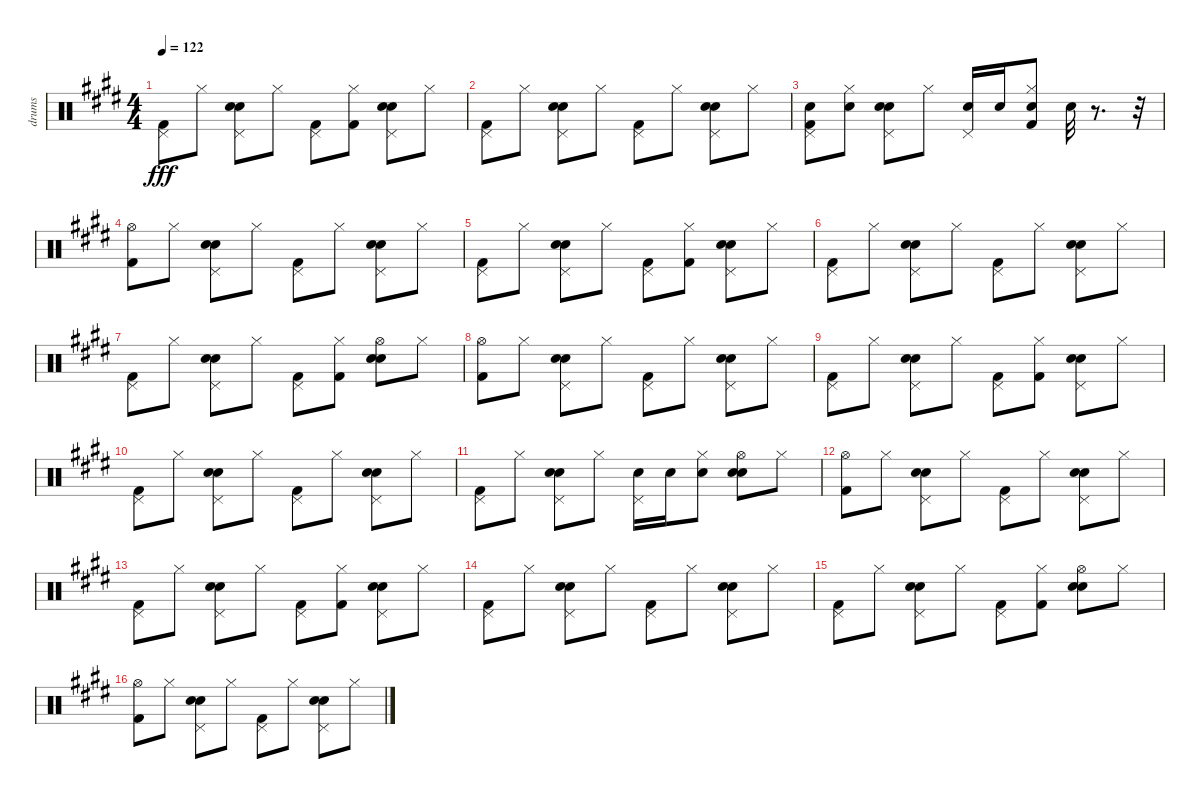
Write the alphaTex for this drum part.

\track ("drums" "drums") {instrument percussion}
\staff {score}
\articulation defaults
\ts (4 4)
\tempo 122
\clef neutral
\ks e
("Pedal Hi-Hat (hit)" "Kick (hit) 2").8{dy fff} "Hi-Hat (closed)".8 ("Hand Clap (hit)" "Pedal Hi-Hat (hit)" "Snare (hit) 2").8 "Hi-Hat (closed)".8 ("Pedal Hi-Hat (hit)" "Kick (hit) 2").8 ("Hi-Hat (closed)" "Kick (hit) 2").8 ("Hand Clap (hit)" "Pedal Hi-Hat (hit)" "Snare (hit) 2").8 "Hi-Hat (closed)".8 |
("Pedal Hi-Hat (hit)" "Kick (hit) 2").8 "Hi-Hat (closed)".8 ("Hand Clap (hit)" "Pedal Hi-Hat (hit)" "Snare (hit) 2").8 "Hi-Hat (closed)".8 ("Pedal Hi-Hat (hit)" "Kick (hit) 2").8 "Hi-Hat (closed)".8 ("Hand Clap (hit)" "Pedal Hi-Hat (hit)" "Snare (hit) 2").8 "Hi-Hat (closed)".8 |
("Snare (hit) 2" "Kick (hit) 2" "Pedal Hi-Hat (hit)").8 ("Snare (hit) 2" "Hi-Hat (closed)").8 ("Hand Clap (hit)" "Pedal Hi-Hat (hit)" "Snare (hit) 2").8 "Hi-Hat (closed)".8 ("Snare (hit) 2" "Pedal Hi-Hat (hit)").16 "Snare (hit) 2".16 ("Kick (hit) 2" "Snare (hit) 2" "Hi-Hat (closed)").8 "Hand Clap (hit)".32 r.8{d} r.32 |
("Hi-Hat (open)" "Kick (hit) 2").8 "Hi-Hat (closed)".8 ("Hand Clap (hit)" "Pedal Hi-Hat (hit)" "Snare (hit) 2").8 "Hi-Hat (closed)".8 ("Pedal Hi-Hat (hit)" "Kick (hit) 2").8 "Hi-Hat (closed)".8 ("Hand Clap (hit)" "Pedal Hi-Hat (hit)" "Snare (hit) 2").8 "Hi-Hat (closed)".8 |
("Pedal Hi-Hat (hit)" "Kick (hit) 2").8 "Hi-Hat (closed)".8 ("Hand Clap (hit)" "Pedal Hi-Hat (hit)" "Snare (hit) 2").8 "Hi-Hat (closed)".8 ("Pedal Hi-Hat (hit)" "Kick (hit) 2").8 ("Hi-Hat (closed)" "Kick (hit) 2").8 ("Hand Clap (hit)" "Pedal Hi-Hat (hit)" "Snare (hit) 2").8 "Hi-Hat (closed)".8 |
("Pedal Hi-Hat (hit)" "Kick (hit) 2").8 "Hi-Hat (closed)".8 ("Hand Clap (hit)" "Pedal Hi-Hat (hit)" "Snare (hit) 2").8 "Hi-Hat (closed)".8 ("Pedal Hi-Hat (hit)" "Kick (hit) 2").8 "Hi-Hat (closed)".8 ("Hand Clap (hit)" "Pedal Hi-Hat (hit)" "Snare (hit) 2").8 "Hi-Hat (closed)".8 |
("Pedal Hi-Hat (hit)" "Kick (hit) 2").8 "Hi-Hat (closed)".8 ("Hand Clap (hit)" "Pedal Hi-Hat (hit)" "Snare (hit) 2").8 "Hi-Hat (closed)".8 ("Kick (hit) 2" "Pedal Hi-Hat (hit)").8 ("Kick (hit) 2" "Hi-Hat (closed)").8 ("Hand Clap (hit)" "Hi-Hat (open)" "Snare (hit) 2").8 "Hi-Hat (closed)".8 |
("Hi-Hat (open)" "Kick (hit) 2").8 "Hi-Hat (closed)".8 ("Hand Clap (hit)" "Pedal Hi-Hat (hit)" "Snare (hit) 2").8 "Hi-Hat (closed)".8 ("Pedal Hi-Hat (hit)" "Kick (hit) 2").8 "Hi-Hat (closed)".8 ("Hand Clap (hit)" "Pedal Hi-Hat (hit)" "Snare (hit) 2").8 "Hi-Hat (closed)".8 |
("Pedal Hi-Hat (hit)" "Kick (hit) 2").8 "Hi-Hat (closed)".8 ("Hand Clap (hit)" "Pedal Hi-Hat (hit)" "Snare (hit) 2").8 "Hi-Hat (closed)".8 ("Pedal Hi-Hat (hit)" "Kick (hit) 2").8 ("Hi-Hat (closed)" "Kick (hit) 2").8 ("Hand Clap (hit)" "Pedal Hi-Hat (hit)" "Snare (hit) 2").8 "Hi-Hat (closed)".8 |
("Pedal Hi-Hat (hit)" "Kick (hit) 2").8 "Hi-Hat (closed)".8 ("Hand Clap (hit)" "Pedal Hi-Hat (hit)" "Snare (hit) 2").8 "Hi-Hat (closed)".8 ("Pedal Hi-Hat (hit)" "Kick (hit) 2").8 "Hi-Hat (closed)".8 ("Hand Clap (hit)" "Pedal Hi-Hat (hit)" "Snare (hit) 2").8 "Hi-Hat (closed)".8 |
("Kick (hit) 2" "Pedal Hi-Hat (hit)").8 "Hi-Hat (closed)".8 ("Hand Clap (hit)" "Pedal Hi-Hat (hit)" "Snare (hit) 2").8 "Hi-Hat (closed)".8 ("Snare (hit) 2" "Pedal Hi-Hat (hit)").16 "Snare (hit) 2".16 ("Snare (hit) 2" "Hi-Hat (closed)").8 ("Hand Clap (hit)" "Hi-Hat (open)" "Snare (hit) 2").8 "Hi-Hat (closed)".8 |
("Hi-Hat (open)" "Kick (hit) 2").8 "Hi-Hat (closed)".8 ("Hand Clap (hit)" "Pedal Hi-Hat (hit)" "Snare (hit) 2").8 "Hi-Hat (closed)".8 ("Pedal Hi-Hat (hit)" "Kick (hit) 2").8 "Hi-Hat (closed)".8 ("Hand Clap (hit)" "Pedal Hi-Hat (hit)" "Snare (hit) 2").8 "Hi-Hat (closed)".8 |
("Pedal Hi-Hat (hit)" "Kick (hit) 2").8 "Hi-Hat (closed)".8 ("Hand Clap (hit)" "Pedal Hi-Hat (hit)" "Snare (hit) 2").8 "Hi-Hat (closed)".8 ("Pedal Hi-Hat (hit)" "Kick (hit) 2").8 ("Hi-Hat (closed)" "Kick (hit) 2").8 ("Hand Clap (hit)" "Pedal Hi-Hat (hit)" "Snare (hit) 2").8 "Hi-Hat (closed)".8 |
("Pedal Hi-Hat (hit)" "Kick (hit) 2").8 "Hi-Hat (closed)".8 ("Hand Clap (hit)" "Pedal Hi-Hat (hit)" "Snare (hit) 2").8 "Hi-Hat (closed)".8 ("Pedal Hi-Hat (hit)" "Kick (hit) 2").8 "Hi-Hat (closed)".8 ("Hand Clap (hit)" "Pedal Hi-Hat (hit)" "Snare (hit) 2").8 "Hi-Hat (closed)".8 |
("Pedal Hi-Hat (hit)" "Kick (hit) 2").8 "Hi-Hat (closed)".8 ("Hand Clap (hit)" "Pedal Hi-Hat (hit)" "Snare (hit) 2").8 "Hi-Hat (closed)".8 ("Kick (hit) 2" "Pedal Hi-Hat (hit)").8 ("Kick (hit) 2" "Hi-Hat (closed)").8 ("Hand Clap (hit)" "Hi-Hat (open)" "Snare (hit) 2").8 "Hi-Hat (closed)".8 |
("Hi-Hat (open)" "Kick (hit) 2").8 "Hi-Hat (closed)".8 ("Hand Clap (hit)" "Pedal Hi-Hat (hit)" "Snare (hit) 2").8 "Hi-Hat (closed)".8 ("Pedal Hi-Hat (hit)" "Kick (hit) 2").8 "Hi-Hat (closed)".8 ("Hand Clap (hit)" "Pedal Hi-Hat (hit)" "Snare (hit) 2").8 "Hi-Hat (closed)".8
